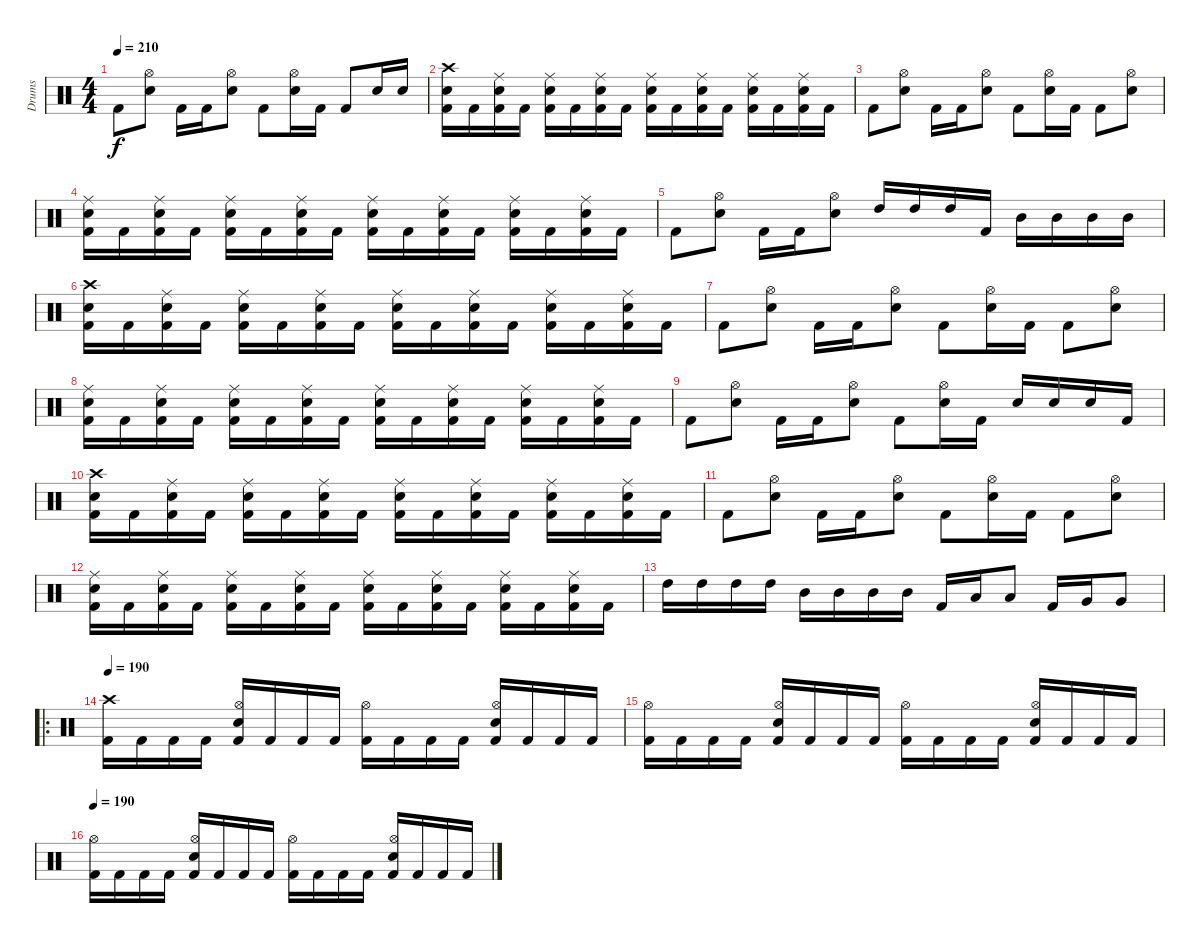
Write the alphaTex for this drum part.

\track ("Drums" "Drums") {instrument percussion}
\staff {score}
\articulation defaults
\ts (4 4)
\tempo 210
\clef neutral
\ks c "Kick (hit) 2".8{dy f}
("Hi-Hat (open)" "Electric Snare (hit)").8 "Kick (hit) 2".16 "Kick (hit) 2".16 ("Hi-Hat (open)" "Electric Snare (hit)").8 "Kick (hit) 2".8 ("Hi-Hat (open)" "Electric Snare (hit)").16 "Kick (hit) 2".16 "Kick (hit) 2".8 "Electric Snare (hit)".16 "Electric Snare (hit)".16 |
("Crash high (hit)" "Electric Snare (hit)" "Kick (hit) 2").16 "Kick (hit) 2".16 ("Ride (middle)" "Electric Snare (hit)" "Kick (hit) 2").16 "Kick (hit) 2".16 ("Ride (middle)" "Electric Snare (hit)" "Kick (hit) 2").16 "Kick (hit) 2".16 ("Ride (middle)" "Electric Snare (hit)" "Kick (hit) 2").16 "Kick (hit) 2".16 ("Ride (middle)" "Electric Snare (hit)" "Kick (hit) 2").16 "Kick (hit) 2".16 ("Ride (middle)" "Electric Snare (hit)" "Kick (hit) 2").16 "Kick (hit) 2".16 ("Ride (middle)" "Electric Snare (hit)" "Kick (hit) 2").16 "Kick (hit) 2".16 ("Ride (middle)" "Electric Snare (hit)" "Kick (hit) 2").16 "Kick (hit) 2".16 |
"Kick (hit) 2".8 ("Hi-Hat (open)" "Electric Snare (hit)").8 "Kick (hit) 2".16 "Kick (hit) 2".16 ("Hi-Hat (open)" "Electric Snare (hit)").8 "Kick (hit) 2".8 ("Hi-Hat (open)" "Electric Snare (hit)").16 "Kick (hit) 2".16 "Kick (hit) 2".8 ("Hi-Hat (open)" "Electric Snare (hit)").8 |
("Ride (middle)" "Electric Snare (hit)" "Kick (hit) 2").16 "Kick (hit) 2".16 ("Ride (middle)" "Electric Snare (hit)" "Kick (hit) 2").16 "Kick (hit) 2".16 ("Ride (middle)" "Electric Snare (hit)" "Kick (hit) 2").16 "Kick (hit) 2".16 ("Ride (middle)" "Electric Snare (hit)" "Kick (hit) 2").16 "Kick (hit) 2".16 ("Ride (middle)" "Electric Snare (hit)" "Kick (hit) 2").16 "Kick (hit) 2".16 ("Ride (middle)" "Electric Snare (hit)" "Kick (hit) 2").16 "Kick (hit) 2".16 ("Ride (middle)" "Electric Snare (hit)" "Kick (hit) 2").16 "Kick (hit) 2".16 ("Ride (middle)" "Electric Snare (hit)" "Kick (hit) 2").16 "Kick (hit) 2".16 |
"Kick (hit) 2".8 ("Hi-Hat (open)" "Electric Snare (hit)").8 "Kick (hit) 2".16 "Kick (hit) 2".16 ("Hi-Hat (open)" "Electric Snare (hit)").8 "High Tom (hit)".16 "High Tom (hit)".16 "High Tom (hit)".16 "Kick (hit) 2".16 "Mid Tom (hit)".16 "Mid Tom (hit)".16 "Mid Tom (hit)".16 "Mid Tom (hit)".16 |
("Crash high (hit)" "Electric Snare (hit)" "Kick (hit) 2").16 "Kick (hit) 2".16 ("Ride (middle)" "Electric Snare (hit)" "Kick (hit) 2").16 "Kick (hit) 2".16 ("Ride (middle)" "Electric Snare (hit)" "Kick (hit) 2").16 "Kick (hit) 2".16 ("Ride (middle)" "Electric Snare (hit)" "Kick (hit) 2").16 "Kick (hit) 2".16 ("Ride (middle)" "Electric Snare (hit)" "Kick (hit) 2").16 "Kick (hit) 2".16 ("Ride (middle)" "Electric Snare (hit)" "Kick (hit) 2").16 "Kick (hit) 2".16 ("Ride (middle)" "Electric Snare (hit)" "Kick (hit) 2").16 "Kick (hit) 2".16 ("Ride (middle)" "Electric Snare (hit)" "Kick (hit) 2").16 "Kick (hit) 2".16 |
"Kick (hit) 2".8 ("Hi-Hat (open)" "Electric Snare (hit)").8 "Kick (hit) 2".16 "Kick (hit) 2".16 ("Hi-Hat (open)" "Electric Snare (hit)").8 "Kick (hit) 2".8 ("Hi-Hat (open)" "Electric Snare (hit)").16 "Kick (hit) 2".16 "Kick (hit) 2".8 ("Hi-Hat (open)" "Electric Snare (hit)").8 |
("Ride (middle)" "Electric Snare (hit)" "Kick (hit) 2").16 "Kick (hit) 2".16 ("Ride (middle)" "Electric Snare (hit)" "Kick (hit) 2").16 "Kick (hit) 2".16 ("Ride (middle)" "Electric Snare (hit)" "Kick (hit) 2").16 "Kick (hit) 2".16 ("Ride (middle)" "Electric Snare (hit)" "Kick (hit) 2").16 "Kick (hit) 2".16 ("Ride (middle)" "Electric Snare (hit)" "Kick (hit) 2").16 "Kick (hit) 2".16 ("Ride (middle)" "Electric Snare (hit)" "Kick (hit) 2").16 "Kick (hit) 2".16 ("Ride (middle)" "Electric Snare (hit)" "Kick (hit) 2").16 "Kick (hit) 2".16 ("Ride (middle)" "Electric Snare (hit)" "Kick (hit) 2").16 "Kick (hit) 2".16 |
"Kick (hit) 2".8 ("Hi-Hat (open)" "Electric Snare (hit)").8 "Kick (hit) 2".16 "Kick (hit) 2".16 ("Hi-Hat (open)" "Electric Snare (hit)").8 "Kick (hit) 2".8 ("Hi-Hat (open)" "Electric Snare (hit)").16 "Kick (hit) 2".16 "Electric Snare (hit)".16 "Electric Snare (hit)".16 "Electric Snare (hit)".16 "Kick (hit) 2".16 |
("Crash high (hit)" "Electric Snare (hit)" "Kick (hit) 2").16 "Kick (hit) 2".16 ("Ride (middle)" "Electric Snare (hit)" "Kick (hit) 2").16 "Kick (hit) 2".16 ("Ride (middle)" "Electric Snare (hit)" "Kick (hit) 2").16 "Kick (hit) 2".16 ("Ride (middle)" "Electric Snare (hit)" "Kick (hit) 2").16 "Kick (hit) 2".16 ("Ride (middle)" "Electric Snare (hit)" "Kick (hit) 2").16 "Kick (hit) 2".16 ("Ride (middle)" "Electric Snare (hit)" "Kick (hit) 2").16 "Kick (hit) 2".16 ("Ride (middle)" "Electric Snare (hit)" "Kick (hit) 2").16 "Kick (hit) 2".16 ("Ride (middle)" "Electric Snare (hit)" "Kick (hit) 2").16 "Kick (hit) 2".16 |
"Kick (hit) 2".8 ("Hi-Hat (open)" "Electric Snare (hit)").8 "Kick (hit) 2".16 "Kick (hit) 2".16 ("Hi-Hat (open)" "Electric Snare (hit)").8 "Kick (hit) 2".8 ("Hi-Hat (open)" "Electric Snare (hit)").16 "Kick (hit) 2".16 "Kick (hit) 2".8 ("Hi-Hat (open)" "Electric Snare (hit)").8 |
("Ride (middle)" "Electric Snare (hit)" "Kick (hit) 2").16 "Kick (hit) 2".16 ("Ride (middle)" "Electric Snare (hit)" "Kick (hit) 2").16 "Kick (hit) 2".16 ("Ride (middle)" "Electric Snare (hit)" "Kick (hit) 2").16 "Kick (hit) 2".16 ("Ride (middle)" "Electric Snare (hit)" "Kick (hit) 2").16 "Kick (hit) 2".16 ("Ride (middle)" "Electric Snare (hit)" "Kick (hit) 2").16 "Kick (hit) 2".16 ("Ride (middle)" "Electric Snare (hit)" "Kick (hit) 2").16 "Kick (hit) 2".16 ("Ride (middle)" "Electric Snare (hit)" "Kick (hit) 2").16 "Kick (hit) 2".16 ("Ride (middle)" "Electric Snare (hit)" "Kick (hit) 2").16 "Kick (hit) 2".16 |
"High Tom (hit)".16 "High Tom (hit)".16 "High Tom (hit)".16 "High Tom (hit)".16 "Mid Tom (hit)".16 "Mid Tom (hit)".16 "Mid Tom (hit)".16 "Mid Tom (hit)".16 "Kick (hit) 2".16 "Low Tom (hit)".16 "Low Tom (hit)".8 "Kick (hit) 2".16 "Very Low Tom (hit)".16 "Very Low Tom (hit)".8 |
\ro
\tempo 190
("Crash high (hit)" "Kick (hit) 2").16 "Kick (hit) 2".16 "Kick (hit) 2".16 "Kick (hit) 2".16 ("Hi-Hat (open)" "Electric Snare (hit)" "Kick (hit) 2").16 "Kick (hit) 2".16 "Kick (hit) 2".16 "Kick (hit) 2".16 ("Hi-Hat (open)" "Kick (hit) 2").16 "Kick (hit) 2".16 "Kick (hit) 2".16 "Kick (hit) 2".16 ("Hi-Hat (open)" "Electric Snare (hit)" "Kick (hit) 2").16 "Kick (hit) 2".16 "Kick (hit) 2".16 "Kick (hit) 2".16 |
("Hi-Hat (open)" "Kick (hit) 2").16 "Kick (hit) 2".16 "Kick (hit) 2".16 "Kick (hit) 2".16 ("Hi-Hat (open)" "Electric Snare (hit)" "Kick (hit) 2").16 "Kick (hit) 2".16 "Kick (hit) 2".16 "Kick (hit) 2".16 ("Hi-Hat (open)" "Kick (hit) 2").16 "Kick (hit) 2".16 "Kick (hit) 2".16 "Kick (hit) 2".16 ("Hi-Hat (open)" "Electric Snare (hit)" "Kick (hit) 2").16 "Kick (hit) 2".16 "Kick (hit) 2".16 "Kick (hit) 2".16 |
\tempo 190
("Hi-Hat (open)" "Kick (hit) 2").16 "Kick (hit) 2".16 "Kick (hit) 2".16 "Kick (hit) 2".16 ("Hi-Hat (open)" "Electric Snare (hit)" "Kick (hit) 2").16 "Kick (hit) 2".16 "Kick (hit) 2".16 "Kick (hit) 2".16 ("Hi-Hat (open)" "Kick (hit) 2").16 "Kick (hit) 2".16 "Kick (hit) 2".16 "Kick (hit) 2".16 ("Hi-Hat (open)" "Electric Snare (hit)" "Kick (hit) 2").16 "Kick (hit) 2".16 "Kick (hit) 2".16 "Kick (hit) 2".16
